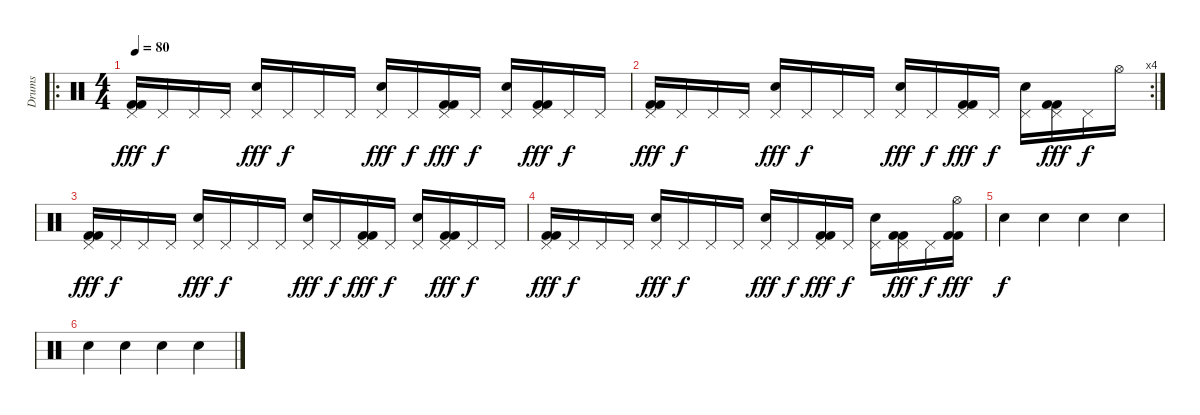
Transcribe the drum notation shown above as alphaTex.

\track ("Drums" "Drums") {instrument percussion}
\staff {score}
\articulation defaults
\ro
\ts (4 4)
\tempo 80
\clef neutral
\ks c
("Pedal Hi-Hat (hit)" "Kick (hit) 2" "Kick (hit) 2").16{dy fff} "Pedal Hi-Hat (hit)".16{dy f} "Pedal Hi-Hat (hit)".16 "Pedal Hi-Hat (hit)".16 ("Hand Clap (hit)" "Pedal Hi-Hat (hit)").16{dy fff} "Pedal Hi-Hat (hit)".16{dy f} "Pedal Hi-Hat (hit)".16 "Pedal Hi-Hat (hit)".16 ("Hand Clap (hit)" "Pedal Hi-Hat (hit)").16{dy fff} "Pedal Hi-Hat (hit)".16{dy f} ("Pedal Hi-Hat (hit)" "Kick (hit) 2" "Kick (hit) 2").16{dy fff} "Pedal Hi-Hat (hit)".16{dy f} ("Hand Clap (hit)" "Pedal Hi-Hat (hit)").16 ("Pedal Hi-Hat (hit)" "Kick (hit) 2" "Kick (hit) 2").16{dy fff} "Pedal Hi-Hat (hit)".16{dy f} "Pedal Hi-Hat (hit)".16 |
\rc 4
("Pedal Hi-Hat (hit)" "Kick (hit) 2" "Kick (hit) 2").16{dy fff} "Pedal Hi-Hat (hit)".16{dy f} "Pedal Hi-Hat (hit)".16 "Pedal Hi-Hat (hit)".16 ("Hand Clap (hit)" "Pedal Hi-Hat (hit)").16{dy fff} "Pedal Hi-Hat (hit)".16{dy f} "Pedal Hi-Hat (hit)".16 "Pedal Hi-Hat (hit)".16 ("Hand Clap (hit)" "Pedal Hi-Hat (hit)").16{dy fff} "Pedal Hi-Hat (hit)".16{dy f} ("Pedal Hi-Hat (hit)" "Kick (hit) 2" "Kick (hit) 2").16{dy fff} "Pedal Hi-Hat (hit)".16{dy f} ("Hand Clap (hit)" "Pedal Hi-Hat (hit)").16 ("Pedal Hi-Hat (hit)" "Kick (hit) 2" "Kick (hit) 2").16{dy fff} "Pedal Hi-Hat (hit)".16{dy f} "Hi-Hat (open)".16 |
("Pedal Hi-Hat (hit)" "Kick (hit) 2" "Kick (hit) 2").16{dy fff} "Pedal Hi-Hat (hit)".16{dy f} "Pedal Hi-Hat (hit)".16 "Pedal Hi-Hat (hit)".16 ("Hand Clap (hit)" "Pedal Hi-Hat (hit)").16{dy fff} "Pedal Hi-Hat (hit)".16{dy f} "Pedal Hi-Hat (hit)".16 "Pedal Hi-Hat (hit)".16 ("Hand Clap (hit)" "Pedal Hi-Hat (hit)").16{dy fff} "Pedal Hi-Hat (hit)".16{dy f} ("Pedal Hi-Hat (hit)" "Kick (hit) 2" "Kick (hit) 2").16{dy fff} "Pedal Hi-Hat (hit)".16{dy f} ("Hand Clap (hit)" "Pedal Hi-Hat (hit)").16 ("Pedal Hi-Hat (hit)" "Kick (hit) 2" "Kick (hit) 2").16{dy fff} "Pedal Hi-Hat (hit)".16{dy f} "Pedal Hi-Hat (hit)".16 |
("Pedal Hi-Hat (hit)" "Kick (hit) 2" "Kick (hit) 2").16{dy fff} "Pedal Hi-Hat (hit)".16{dy f} "Pedal Hi-Hat (hit)".16 "Pedal Hi-Hat (hit)".16 ("Hand Clap (hit)" "Pedal Hi-Hat (hit)").16{dy fff} "Pedal Hi-Hat (hit)".16{dy f} "Pedal Hi-Hat (hit)".16 "Pedal Hi-Hat (hit)".16 ("Hand Clap (hit)" "Pedal Hi-Hat (hit)").16{dy fff} "Pedal Hi-Hat (hit)".16{dy f} ("Pedal Hi-Hat (hit)" "Kick (hit) 2" "Kick (hit) 2").16{dy fff} "Pedal Hi-Hat (hit)".16{dy f} ("Hand Clap (hit)" "Pedal Hi-Hat (hit)").16 ("Pedal Hi-Hat (hit)" "Kick (hit) 2" "Kick (hit) 2").16{dy fff} "Pedal Hi-Hat (hit)".16{dy f} ("Hi-Hat (open)" "Kick (hit) 2" "Kick (hit) 2").16{dy fff} |
"Hand Clap (hit)".4{dy f} "Hand Clap (hit)".4 "Hand Clap (hit)".4 "Hand Clap (hit)".4 |
"Hand Clap (hit)".4 "Hand Clap (hit)".4 "Hand Clap (hit)".4 "Hand Clap (hit)".4
